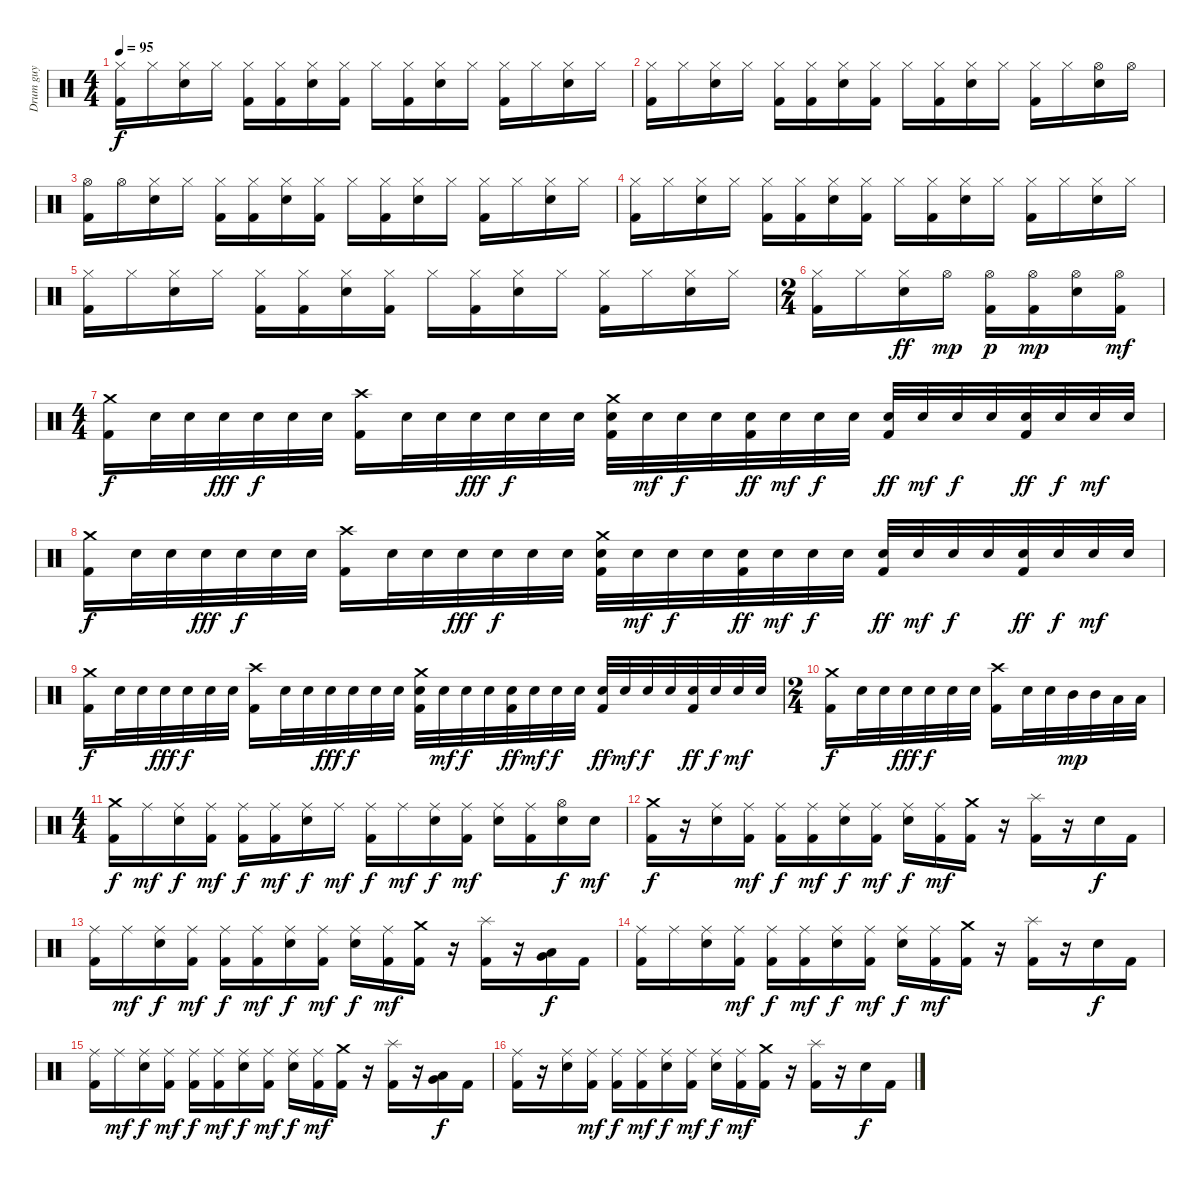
\track ("Drum guy" "Drum guy") {instrument percussion}
\staff {score}
\articulation defaults
\ts (4 4)
\tempo 95
\clef neutral
\ks c
("Hi-Hat (closed)" "Kick (hit) 2").16{dy f} "Hi-Hat (closed)".16 ("Hi-Hat (closed)" "Electric Snare (hit)").16 "Hi-Hat (closed)".16 ("Hi-Hat (closed)" "Kick (hit) 2").16 ("Hi-Hat (closed)" "Kick (hit) 2").16 ("Hi-Hat (closed)" "Electric Snare (hit)").16 ("Hi-Hat (closed)" "Kick (hit) 2").16 "Hi-Hat (closed)".16 ("Hi-Hat (closed)" "Kick (hit) 2").16 ("Hi-Hat (closed)" "Electric Snare (hit)").16 "Hi-Hat (closed)".16 ("Hi-Hat (closed)" "Kick (hit) 2").16 "Hi-Hat (closed)".16 ("Hi-Hat (closed)" "Electric Snare (hit)").16 "Hi-Hat (closed)".16 |
("Hi-Hat (closed)" "Kick (hit) 2").16 "Hi-Hat (closed)".16 ("Hi-Hat (closed)" "Electric Snare (hit)").16 "Hi-Hat (closed)".16 ("Hi-Hat (closed)" "Kick (hit) 2").16 ("Hi-Hat (closed)" "Kick (hit) 2").16 ("Hi-Hat (closed)" "Electric Snare (hit)").16 ("Hi-Hat (closed)" "Kick (hit) 2").16 "Hi-Hat (closed)".16 ("Hi-Hat (closed)" "Kick (hit) 2").16 ("Hi-Hat (closed)" "Electric Snare (hit)").16 "Hi-Hat (closed)".16 ("Hi-Hat (closed)" "Kick (hit) 2").16 "Hi-Hat (closed)".16 ("Hi-Hat (open)" "Electric Snare (hit)").16 "Hi-Hat (open)".16 |
("Hi-Hat (open)" "Kick (hit) 2").16 "Hi-Hat (open)".16 ("Hi-Hat (closed)" "Electric Snare (hit)").16 "Hi-Hat (closed)".16 ("Hi-Hat (closed)" "Kick (hit) 2").16 ("Hi-Hat (closed)" "Kick (hit) 2").16 ("Hi-Hat (closed)" "Electric Snare (hit)").16 ("Hi-Hat (closed)" "Kick (hit) 2").16 "Hi-Hat (closed)".16 ("Hi-Hat (closed)" "Kick (hit) 2").16 ("Hi-Hat (closed)" "Electric Snare (hit)").16 "Hi-Hat (closed)".16 ("Hi-Hat (closed)" "Kick (hit) 2").16 "Hi-Hat (closed)".16 ("Hi-Hat (closed)" "Electric Snare (hit)").16 "Hi-Hat (closed)".16 |
("Hi-Hat (closed)" "Kick (hit) 2").16 "Hi-Hat (closed)".16 ("Hi-Hat (closed)" "Electric Snare (hit)").16 "Hi-Hat (closed)".16 ("Hi-Hat (closed)" "Kick (hit) 2").16 ("Hi-Hat (closed)" "Kick (hit) 2").16 ("Hi-Hat (closed)" "Electric Snare (hit)").16 ("Hi-Hat (closed)" "Kick (hit) 2").16 "Hi-Hat (closed)".16 ("Hi-Hat (closed)" "Kick (hit) 2").16 ("Hi-Hat (closed)" "Electric Snare (hit)").16 "Hi-Hat (closed)".16 ("Hi-Hat (closed)" "Kick (hit) 2").16 "Hi-Hat (closed)".16 ("Hi-Hat (closed)" "Electric Snare (hit)").16 "Hi-Hat (closed)".16 |
("Hi-Hat (closed)" "Kick (hit) 2").16 "Hi-Hat (closed)".16 ("Hi-Hat (closed)" "Electric Snare (hit)").16 "Hi-Hat (closed)".16 ("Hi-Hat (closed)" "Kick (hit) 2").16 ("Hi-Hat (closed)" "Kick (hit) 2").16 ("Hi-Hat (closed)" "Electric Snare (hit)").16 ("Hi-Hat (closed)" "Kick (hit) 2").16 "Hi-Hat (closed)".16 ("Hi-Hat (closed)" "Kick (hit) 2").16 ("Hi-Hat (closed)" "Electric Snare (hit)").16 "Hi-Hat (closed)".16 ("Hi-Hat (closed)" "Kick (hit) 2").16 "Hi-Hat (closed)".16 ("Hi-Hat (closed)" "Electric Snare (hit)").16 "Hi-Hat (closed)".16 |
\ts (2 4)
("Hi-Hat (closed)" "Kick (hit) 2").16 "Hi-Hat (closed)".16 ("Hi-Hat (closed)" "Electric Snare (hit)").16{dy ff} "Hi-Hat (open)".16{dy mp} ("Hi-Hat (open)" "Kick (hit) 2").16{dy p} ("Hi-Hat (open)" "Kick (hit) 2").16{dy mp} ("Hi-Hat (open)" "Electric Snare (hit)").16 ("Hi-Hat (open)" "Kick (hit) 2").16{dy mf} |
\ts (4 4)
("Crash medium (hit)" "Kick (hit) 2").16{dy f} "Electric Snare (hit)".32 "Electric Snare (hit)".32 "Electric Snare (hit)".32{dy fff} "Electric Snare (hit)".32{dy f} "Electric Snare (hit)".32 "Electric Snare (hit)".32 ("Crash high (hit)" "Kick (hit) 2").16 "Electric Snare (hit)".32 "Electric Snare (hit)".32 "Electric Snare (hit)".32{dy fff} "Electric Snare (hit)".32{dy f} "Electric Snare (hit)".32 "Electric Snare (hit)".32 ("Crash medium (hit)" "Electric Snare (hit)" "Kick (hit) 2").32 "Electric Snare (hit)".32{dy mf} "Electric Snare (hit)".32{dy f} "Electric Snare (hit)".32 ("Electric Snare (hit)" "Kick (hit) 2").32{dy ff} "Electric Snare (hit)".32{dy mf} "Electric Snare (hit)".32{dy f} "Electric Snare (hit)".32 ("Electric Snare (hit)" "Kick (hit) 2").32{dy ff} "Electric Snare (hit)".32{dy mf} "Electric Snare (hit)".32{dy f} "Electric Snare (hit)".32 ("Electric Snare (hit)" "Kick (hit) 2").32{dy ff} "Electric Snare (hit)".32{dy f} "Electric Snare (hit)".32{dy mf} "Electric Snare (hit)".32 |
("Crash medium (hit)" "Kick (hit) 2").16{dy f} "Electric Snare (hit)".32 "Electric Snare (hit)".32 "Electric Snare (hit)".32{dy fff} "Electric Snare (hit)".32{dy f} "Electric Snare (hit)".32 "Electric Snare (hit)".32 ("Crash high (hit)" "Kick (hit) 2").16 "Electric Snare (hit)".32 "Electric Snare (hit)".32 "Electric Snare (hit)".32{dy fff} "Electric Snare (hit)".32{dy f} "Electric Snare (hit)".32 "Electric Snare (hit)".32 ("Crash medium (hit)" "Electric Snare (hit)" "Kick (hit) 2").32 "Electric Snare (hit)".32{dy mf} "Electric Snare (hit)".32{dy f} "Electric Snare (hit)".32 ("Electric Snare (hit)" "Kick (hit) 2").32{dy ff} "Electric Snare (hit)".32{dy mf} "Electric Snare (hit)".32{dy f} "Electric Snare (hit)".32 ("Electric Snare (hit)" "Kick (hit) 2").32{dy ff} "Electric Snare (hit)".32{dy mf} "Electric Snare (hit)".32{dy f} "Electric Snare (hit)".32 ("Electric Snare (hit)" "Kick (hit) 2").32{dy ff} "Electric Snare (hit)".32{dy f} "Electric Snare (hit)".32{dy mf} "Electric Snare (hit)".32 |
("Crash medium (hit)" "Kick (hit) 2").16{dy f} "Electric Snare (hit)".32 "Electric Snare (hit)".32 "Electric Snare (hit)".32{dy fff} "Electric Snare (hit)".32{dy f} "Electric Snare (hit)".32 "Electric Snare (hit)".32 ("Crash high (hit)" "Kick (hit) 2").16 "Electric Snare (hit)".32 "Electric Snare (hit)".32 "Electric Snare (hit)".32{dy fff} "Electric Snare (hit)".32{dy f} "Electric Snare (hit)".32 "Electric Snare (hit)".32 ("Crash medium (hit)" "Electric Snare (hit)" "Kick (hit) 2").32 "Electric Snare (hit)".32{dy mf} "Electric Snare (hit)".32{dy f} "Electric Snare (hit)".32 ("Electric Snare (hit)" "Kick (hit) 2").32{dy ff} "Electric Snare (hit)".32{dy mf} "Electric Snare (hit)".32{dy f} "Electric Snare (hit)".32 ("Electric Snare (hit)" "Kick (hit) 2").32{dy ff} "Electric Snare (hit)".32{dy mf} "Electric Snare (hit)".32{dy f} "Electric Snare (hit)".32 ("Electric Snare (hit)" "Kick (hit) 2").32{dy ff} "Electric Snare (hit)".32{dy f} "Electric Snare (hit)".32{dy mf} "Electric Snare (hit)".32 |
\ts (2 4)
("Crash medium (hit)" "Kick (hit) 2").16{dy f} "Electric Snare (hit)".32 "Electric Snare (hit)".32 "Electric Snare (hit)".32{dy fff} "Electric Snare (hit)".32{dy f} "Electric Snare (hit)".32 "Electric Snare (hit)".32 ("Crash high (hit)" "Kick (hit) 2").16 "Electric Snare (hit)".32 "Electric Snare (hit)".32 "Mid Tom (hit)".32{dy mp} "Mid Tom (hit)".32 "Low Tom (hit)".32 "Low Tom (hit)".32 |
\ts (4 4)
("Crash medium (hit)" "Kick (hit) 2").16{dy f} "Ride (middle)".16{dy mf} ("Ride (middle)" "Electric Snare (hit)").16{dy f} ("Ride (middle)" "Kick (hit) 2").16{dy mf} ("Ride (middle)" "Kick (hit) 2").16{dy f} ("Ride (middle)" "Kick (hit) 2").16{dy mf} ("Ride (middle)" "Electric Snare (hit)").16{dy f} "Ride (middle)".16{dy mf} ("Ride (middle)" "Kick (hit) 2").16{dy f} "Ride (middle)".16{dy mf} ("Ride (middle)" "Electric Snare (hit)").16{dy f} ("Ride (middle)" "Kick (hit) 2").16{dy mf} ("Ride (middle)" "Electric Snare (hit)").16 ("Ride (middle)" "Kick (hit) 2").16 ("Hi-Hat (open)" "Electric Snare (hit)").16{dy f} "Electric Snare (hit)".16{dy mf} |
("Crash medium (hit)" "Kick (hit) 2").16{dy f} r.16 ("Ride (middle)" "Electric Snare (hit)").16 ("Ride (middle)" "Kick (hit) 2").16{dy mf} ("Ride (middle)" "Kick (hit) 2").16{dy f} ("Ride (middle)" "Kick (hit) 2").16{dy mf} ("Ride (middle)" "Electric Snare (hit)").16{dy f} ("Ride (middle)" "Kick (hit) 2").16{dy mf} ("Ride (middle)" "Electric Snare (hit)").16{dy f} ("Ride (middle)" "Kick (hit) 2").16{dy mf} ("Crash medium (hit)" "Kick (hit) 2").16 r.16 ("Splash (hit)" "Kick (hit) 2").16 r.16 "Electric Snare (hit)".16{dy f} "Kick (hit) 2".16 |
("Ride (middle)" "Kick (hit) 2").16 "Ride (middle)".16{dy mf} ("Ride (middle)" "Electric Snare (hit)").16{dy f} ("Ride (middle)" "Kick (hit) 2").16{dy mf} ("Ride (middle)" "Kick (hit) 2").16{dy f} ("Ride (middle)" "Kick (hit) 2").16{dy mf} ("Ride (middle)" "Electric Snare (hit)").16{dy f} ("Ride (middle)" "Kick (hit) 2").16{dy mf} ("Ride (middle)" "Electric Snare (hit)").16{dy f} ("Ride (middle)" "Kick (hit) 2").16{dy mf} ("Crash medium (hit)" "Kick (hit) 2").16 r.16 ("Splash (hit)" "Kick (hit) 2").16 r.16 ("Low Tom (hit)" "Very Low Tom (hit)").16{dy f} "Kick (hit) 2".16 |
("Ride (middle)" "Kick (hit) 2").16 "Ride (middle)".16 ("Ride (middle)" "Electric Snare (hit)").16 ("Ride (middle)" "Kick (hit) 2").16{dy mf} ("Ride (middle)" "Kick (hit) 2").16{dy f} ("Ride (middle)" "Kick (hit) 2").16{dy mf} ("Ride (middle)" "Electric Snare (hit)").16{dy f} ("Ride (middle)" "Kick (hit) 2").16{dy mf} ("Ride (middle)" "Electric Snare (hit)").16{dy f} ("Ride (middle)" "Kick (hit) 2").16{dy mf} ("Crash medium (hit)" "Kick (hit) 2").16 r.16 ("Splash (hit)" "Kick (hit) 2").16 r.16 "Electric Snare (hit)".16{dy f} "Kick (hit) 2".16 |
("Ride (middle)" "Kick (hit) 2").16 "Ride (middle)".16{dy mf} ("Ride (middle)" "Electric Snare (hit)").16{dy f} ("Ride (middle)" "Kick (hit) 2").16{dy mf} ("Ride (middle)" "Kick (hit) 2").16{dy f} ("Ride (middle)" "Kick (hit) 2").16{dy mf} ("Ride (middle)" "Electric Snare (hit)").16{dy f} ("Ride (middle)" "Kick (hit) 2").16{dy mf} ("Ride (middle)" "Electric Snare (hit)").16{dy f} ("Ride (middle)" "Kick (hit) 2").16{dy mf} ("Crash medium (hit)" "Kick (hit) 2").16 r.16 ("Splash (hit)" "Kick (hit) 2").16 r.16 ("Low Tom (hit)" "Very Low Tom (hit)").16{dy f} "Kick (hit) 2".16 |
("Ride (middle)" "Kick (hit) 2").16 r.16 ("Ride (middle)" "Electric Snare (hit)").16 ("Ride (middle)" "Kick (hit) 2").16{dy mf} ("Ride (middle)" "Kick (hit) 2").16{dy f} ("Ride (middle)" "Kick (hit) 2").16{dy mf} ("Ride (middle)" "Electric Snare (hit)").16{dy f} ("Ride (middle)" "Kick (hit) 2").16{dy mf} ("Ride (middle)" "Electric Snare (hit)").16{dy f} ("Ride (middle)" "Kick (hit) 2").16{dy mf} ("Crash medium (hit)" "Kick (hit) 2").16 r.16 ("Splash (hit)" "Kick (hit) 2").16 r.16 "Electric Snare (hit)".16{dy f} "Kick (hit) 2".16
